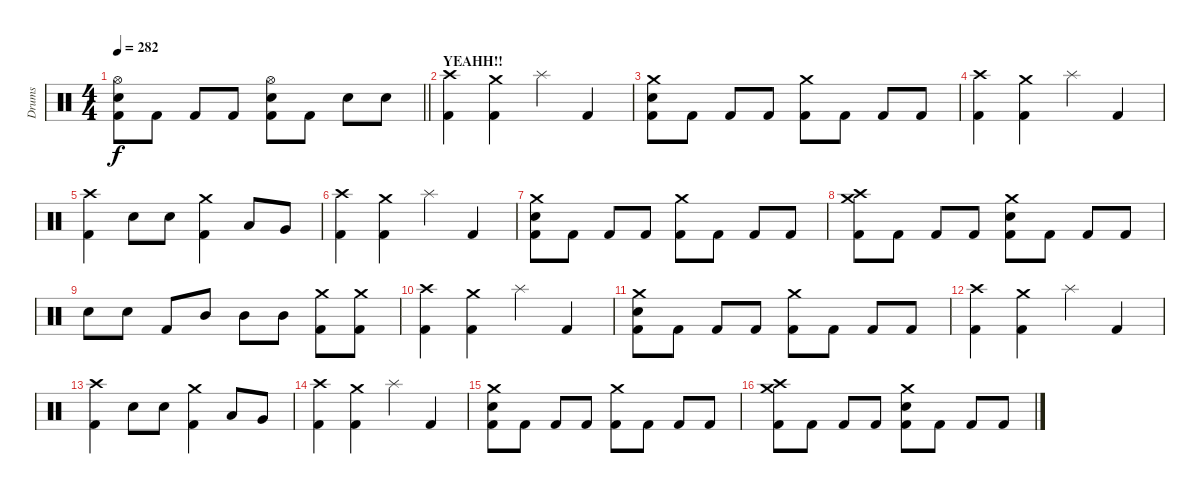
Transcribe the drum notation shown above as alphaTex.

\track ("Drums" "Drums") {instrument percussion}
\staff {score}
\articulation defaults
\ts (4 4)
\tempo 282
\clef neutral
\barLineRight lightlight
\ks c
("Hi-Hat (open)" "Snare (hit) 2" "Kick (hit) 2").8{dy f} "Kick (hit) 2".8 "Kick (hit) 2".8 "Kick (hit) 2".8 ("Hi-Hat (open)" "Snare (hit) 2" "Kick (hit) 2").8 "Kick (hit) 2".8 "Snare (hit) 2".8 "Snare (hit) 2".8 |
\section ("" "YEAHH!!")
("Crash high (hit)" "Kick (hit) 2").4 ("Crash medium (hit)" "Kick (hit) 2").4 "Splash (hit)".4 "Kick (hit) 2".4 |
("Crash medium (hit)" "Snare (hit) 2" "Kick (hit) 2").8 "Kick (hit) 2".8 "Kick (hit) 2".8 "Kick (hit) 2".8 ("Crash medium (hit)" "Kick (hit) 2").8 "Kick (hit) 2".8 "Kick (hit) 2".8 "Kick (hit) 2".8 |
("Crash high (hit)" "Kick (hit) 2").4 ("Crash medium (hit)" "Kick (hit) 2").4 "Splash (hit)".4 "Kick (hit) 2".4 |
("Crash high (hit)" "Kick (hit) 2").4 "Snare (hit) 2".8 "Snare (hit) 2".8 ("Crash medium (hit)" "Kick (hit) 2").4 "Low Tom (hit)".8 "Very Low Tom (hit)".8 |
("Crash high (hit)" "Kick (hit) 2").4 ("Crash medium (hit)" "Kick (hit) 2").4 "Splash (hit)".4 "Kick (hit) 2".4 |
("Crash medium (hit)" "Snare (hit) 2" "Kick (hit) 2").8 "Kick (hit) 2".8 "Kick (hit) 2".8 "Kick (hit) 2".8 ("Crash medium (hit)" "Kick (hit) 2").8 "Kick (hit) 2".8 "Kick (hit) 2".8 "Kick (hit) 2".8 |
("Crash high (hit)" "Crash medium (hit)" "Kick (hit) 2").8 "Kick (hit) 2".8 "Kick (hit) 2".8 "Kick (hit) 2".8 ("Crash medium (hit)" "Snare (hit) 2" "Kick (hit) 2").8 "Kick (hit) 2".8 "Kick (hit) 2".8 "Kick (hit) 2".8 |
"Snare (hit) 2".8 "Snare (hit) 2".8 "Kick (hit) 2".8 "Mid Tom (hit)".8 "Mid Tom (hit)".8 "Mid Tom (hit)".8 ("Crash medium (hit)" "Kick (hit) 2").8 ("Crash medium (hit)" "Kick (hit) 2").8 |
("Crash high (hit)" "Kick (hit) 2").4 ("Crash medium (hit)" "Kick (hit) 2").4 "Splash (hit)".4 "Kick (hit) 2".4 |
("Crash medium (hit)" "Snare (hit) 2" "Kick (hit) 2").8 "Kick (hit) 2".8 "Kick (hit) 2".8 "Kick (hit) 2".8 ("Crash medium (hit)" "Kick (hit) 2").8 "Kick (hit) 2".8 "Kick (hit) 2".8 "Kick (hit) 2".8 |
("Crash high (hit)" "Kick (hit) 2").4 ("Crash medium (hit)" "Kick (hit) 2").4 "Splash (hit)".4 "Kick (hit) 2".4 |
("Crash high (hit)" "Kick (hit) 2").4 "Snare (hit) 2".8 "Snare (hit) 2".8 ("Crash medium (hit)" "Kick (hit) 2").4 "Low Tom (hit)".8 "Very Low Tom (hit)".8 |
("Crash high (hit)" "Kick (hit) 2").4 ("Crash medium (hit)" "Kick (hit) 2").4 "Splash (hit)".4 "Kick (hit) 2".4 |
("Crash medium (hit)" "Snare (hit) 2" "Kick (hit) 2").8 "Kick (hit) 2".8 "Kick (hit) 2".8 "Kick (hit) 2".8 ("Crash medium (hit)" "Kick (hit) 2").8 "Kick (hit) 2".8 "Kick (hit) 2".8 "Kick (hit) 2".8 |
("Crash high (hit)" "Crash medium (hit)" "Kick (hit) 2").8 "Kick (hit) 2".8 "Kick (hit) 2".8 "Kick (hit) 2".8 ("Crash medium (hit)" "Snare (hit) 2" "Kick (hit) 2").8 "Kick (hit) 2".8 "Kick (hit) 2".8 "Kick (hit) 2".8
